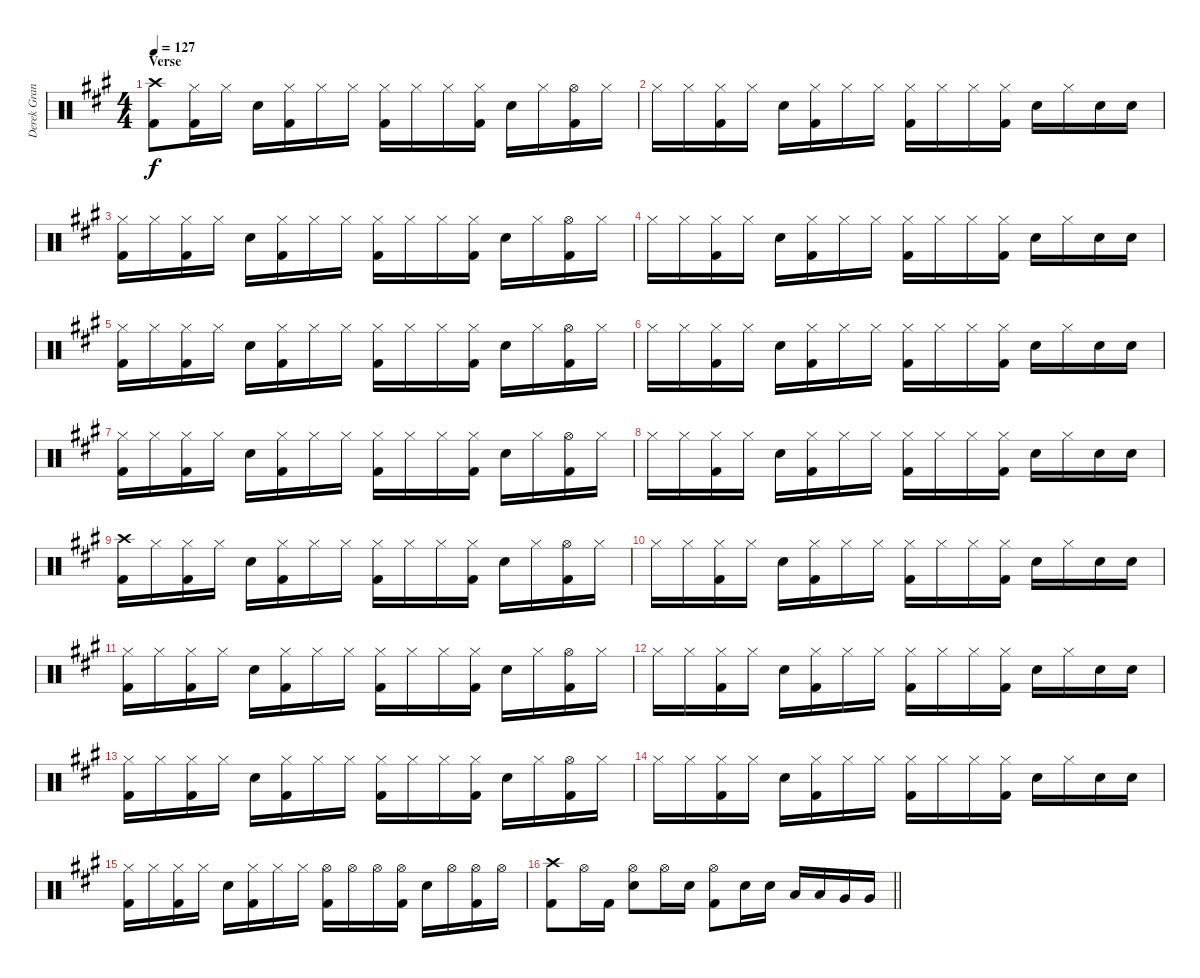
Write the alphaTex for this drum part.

\track ("Derek Grant - Drums" "Derek Gran") {instrument percussion}
\staff {score}
\articulation defaults
\ts (4 4)
\section ("" "Verse")
\tempo 127
\clef neutral
\ks a
("Crash high (hit)" "Kick (hit) 2").8{dy f} ("Kick (hit) 2" "Hi-Hat (closed)").16 "Hi-Hat (closed)".16 "Snare (hit) 2".16 ("Kick (hit) 2" "Hi-Hat (closed)").16 "Hi-Hat (closed)".16 "Hi-Hat (closed)".16 ("Hi-Hat (closed)" "Kick (hit) 2").16 "Hi-Hat (closed)".16 "Hi-Hat (closed)".16 ("Hi-Hat (closed)" "Kick (hit) 2").16 "Snare (hit) 2".16 "Hi-Hat (closed)".16 ("Hi-Hat (open)" "Kick (hit) 2").16 "Hi-Hat (closed)".16 |
"Hi-Hat (closed)".16 "Hi-Hat (closed)".16 ("Hi-Hat (closed)" "Kick (hit) 2").16 "Hi-Hat (closed)".16 "Snare (hit) 2".16 ("Kick (hit) 2" "Hi-Hat (closed)").16 "Hi-Hat (closed)".16 "Hi-Hat (closed)".16 ("Hi-Hat (closed)" "Kick (hit) 2").16 "Hi-Hat (closed)".16 "Hi-Hat (closed)".16 ("Hi-Hat (closed)" "Kick (hit) 2").16 "Snare (hit) 2".16 "Hi-Hat (closed)".16 "Electric Snare (hit)".16 "Electric Snare (hit)".16 |
("Hi-Hat (closed)" "Kick (hit) 2").16 "Hi-Hat (closed)".16 ("Hi-Hat (closed)" "Kick (hit) 2").16 "Hi-Hat (closed)".16 "Snare (hit) 2".16 ("Kick (hit) 2" "Hi-Hat (closed)").16 "Hi-Hat (closed)".16 "Hi-Hat (closed)".16 ("Hi-Hat (closed)" "Kick (hit) 2").16 "Hi-Hat (closed)".16 "Hi-Hat (closed)".16 ("Hi-Hat (closed)" "Kick (hit) 2").16 "Snare (hit) 2".16 "Hi-Hat (closed)".16 ("Hi-Hat (open)" "Kick (hit) 2").16 "Hi-Hat (closed)".16 |
"Hi-Hat (closed)".16 "Hi-Hat (closed)".16 ("Hi-Hat (closed)" "Kick (hit) 2").16 "Hi-Hat (closed)".16 "Snare (hit) 2".16 ("Kick (hit) 2" "Hi-Hat (closed)").16 "Hi-Hat (closed)".16 "Hi-Hat (closed)".16 ("Hi-Hat (closed)" "Kick (hit) 2").16 "Hi-Hat (closed)".16 "Hi-Hat (closed)".16 ("Hi-Hat (closed)" "Kick (hit) 2").16 "Snare (hit) 2".16 "Hi-Hat (closed)".16 "Electric Snare (hit)".16 "Electric Snare (hit)".16 |
("Hi-Hat (closed)" "Kick (hit) 2").16 "Hi-Hat (closed)".16 ("Hi-Hat (closed)" "Kick (hit) 2").16 "Hi-Hat (closed)".16 "Snare (hit) 2".16 ("Kick (hit) 2" "Hi-Hat (closed)").16 "Hi-Hat (closed)".16 "Hi-Hat (closed)".16 ("Hi-Hat (closed)" "Kick (hit) 2").16 "Hi-Hat (closed)".16 "Hi-Hat (closed)".16 ("Hi-Hat (closed)" "Kick (hit) 2").16 "Snare (hit) 2".16 "Hi-Hat (closed)".16 ("Hi-Hat (open)" "Kick (hit) 2").16 "Hi-Hat (closed)".16 |
"Hi-Hat (closed)".16 "Hi-Hat (closed)".16 ("Hi-Hat (closed)" "Kick (hit) 2").16 "Hi-Hat (closed)".16 "Snare (hit) 2".16 ("Kick (hit) 2" "Hi-Hat (closed)").16 "Hi-Hat (closed)".16 "Hi-Hat (closed)".16 ("Hi-Hat (closed)" "Kick (hit) 2").16 "Hi-Hat (closed)".16 "Hi-Hat (closed)".16 ("Hi-Hat (closed)" "Kick (hit) 2").16 "Snare (hit) 2".16 "Hi-Hat (closed)".16 "Electric Snare (hit)".16 "Electric Snare (hit)".16 |
("Hi-Hat (closed)" "Kick (hit) 2").16 "Hi-Hat (closed)".16 ("Hi-Hat (closed)" "Kick (hit) 2").16 "Hi-Hat (closed)".16 "Snare (hit) 2".16 ("Kick (hit) 2" "Hi-Hat (closed)").16 "Hi-Hat (closed)".16 "Hi-Hat (closed)".16 ("Hi-Hat (closed)" "Kick (hit) 2").16 "Hi-Hat (closed)".16 "Hi-Hat (closed)".16 ("Hi-Hat (closed)" "Kick (hit) 2").16 "Snare (hit) 2".16 "Hi-Hat (closed)".16 ("Hi-Hat (open)" "Kick (hit) 2").16 "Hi-Hat (closed)".16 |
"Hi-Hat (closed)".16 "Hi-Hat (closed)".16 ("Hi-Hat (closed)" "Kick (hit) 2").16 "Hi-Hat (closed)".16 "Snare (hit) 2".16 ("Kick (hit) 2" "Hi-Hat (closed)").16 "Hi-Hat (closed)".16 "Hi-Hat (closed)".16 ("Hi-Hat (closed)" "Kick (hit) 2").16 "Hi-Hat (closed)".16 "Hi-Hat (closed)".16 ("Hi-Hat (closed)" "Kick (hit) 2").16 "Snare (hit) 2".16 "Hi-Hat (closed)".16 "Electric Snare (hit)".16 "Electric Snare (hit)".16 |
("Crash high (hit)" "Kick (hit) 2").16 "Hi-Hat (closed)".16 ("Hi-Hat (closed)" "Kick (hit) 2").16 "Hi-Hat (closed)".16 "Snare (hit) 2".16 ("Kick (hit) 2" "Hi-Hat (closed)").16 "Hi-Hat (closed)".16 "Hi-Hat (closed)".16 ("Hi-Hat (closed)" "Kick (hit) 2").16 "Hi-Hat (closed)".16 "Hi-Hat (closed)".16 ("Hi-Hat (closed)" "Kick (hit) 2").16 "Snare (hit) 2".16 "Hi-Hat (closed)".16 ("Hi-Hat (open)" "Kick (hit) 2").16 "Hi-Hat (closed)".16 |
"Hi-Hat (closed)".16 "Hi-Hat (closed)".16 ("Hi-Hat (closed)" "Kick (hit) 2").16 "Hi-Hat (closed)".16 "Snare (hit) 2".16 ("Kick (hit) 2" "Hi-Hat (closed)").16 "Hi-Hat (closed)".16 "Hi-Hat (closed)".16 ("Hi-Hat (closed)" "Kick (hit) 2").16 "Hi-Hat (closed)".16 "Hi-Hat (closed)".16 ("Hi-Hat (closed)" "Kick (hit) 2").16 "Snare (hit) 2".16 "Hi-Hat (closed)".16 "Electric Snare (hit)".16 "Electric Snare (hit)".16 |
("Hi-Hat (closed)" "Kick (hit) 2").16 "Hi-Hat (closed)".16 ("Hi-Hat (closed)" "Kick (hit) 2").16 "Hi-Hat (closed)".16 "Snare (hit) 2".16 ("Kick (hit) 2" "Hi-Hat (closed)").16 "Hi-Hat (closed)".16 "Hi-Hat (closed)".16 ("Hi-Hat (closed)" "Kick (hit) 2").16 "Hi-Hat (closed)".16 "Hi-Hat (closed)".16 ("Hi-Hat (closed)" "Kick (hit) 2").16 "Snare (hit) 2".16 "Hi-Hat (closed)".16 ("Hi-Hat (open)" "Kick (hit) 2").16 "Hi-Hat (closed)".16 |
"Hi-Hat (closed)".16 "Hi-Hat (closed)".16 ("Hi-Hat (closed)" "Kick (hit) 2").16 "Hi-Hat (closed)".16 "Snare (hit) 2".16 ("Kick (hit) 2" "Hi-Hat (closed)").16 "Hi-Hat (closed)".16 "Hi-Hat (closed)".16 ("Hi-Hat (closed)" "Kick (hit) 2").16 "Hi-Hat (closed)".16 "Hi-Hat (closed)".16 ("Hi-Hat (closed)" "Kick (hit) 2").16 "Snare (hit) 2".16 "Hi-Hat (closed)".16 "Electric Snare (hit)".16 "Electric Snare (hit)".16 |
("Hi-Hat (closed)" "Kick (hit) 2").16 "Hi-Hat (closed)".16 ("Hi-Hat (closed)" "Kick (hit) 2").16 "Hi-Hat (closed)".16 "Snare (hit) 2".16 ("Kick (hit) 2" "Hi-Hat (closed)").16 "Hi-Hat (closed)".16 "Hi-Hat (closed)".16 ("Hi-Hat (closed)" "Kick (hit) 2").16 "Hi-Hat (closed)".16 "Hi-Hat (closed)".16 ("Hi-Hat (closed)" "Kick (hit) 2").16 "Snare (hit) 2".16 "Hi-Hat (closed)".16 ("Hi-Hat (open)" "Kick (hit) 2").16 "Hi-Hat (closed)".16 |
"Hi-Hat (closed)".16 "Hi-Hat (closed)".16 ("Hi-Hat (closed)" "Kick (hit) 2").16 "Hi-Hat (closed)".16 "Snare (hit) 2".16 ("Kick (hit) 2" "Hi-Hat (closed)").16 "Hi-Hat (closed)".16 "Hi-Hat (closed)".16 ("Hi-Hat (closed)" "Kick (hit) 2").16 "Hi-Hat (closed)".16 "Hi-Hat (closed)".16 ("Hi-Hat (closed)" "Kick (hit) 2").16 "Snare (hit) 2".16 "Hi-Hat (closed)".16 "Electric Snare (hit)".16 "Electric Snare (hit)".16 |
("Hi-Hat (closed)" "Kick (hit) 2").16 "Hi-Hat (closed)".16 ("Hi-Hat (closed)" "Kick (hit) 2").16 "Hi-Hat (closed)".16 "Snare (hit) 2".16 ("Kick (hit) 2" "Hi-Hat (closed)").16 "Hi-Hat (closed)".16 "Hi-Hat (closed)".16 ("Hi-Hat (open)" "Kick (hit) 2").16 "Hi-Hat (open)".16 "Hi-Hat (open)".16 ("Hi-Hat (open)" "Kick (hit) 2").16 "Snare (hit) 2".16 "Hi-Hat (open)".16 ("Hi-Hat (open)" "Kick (hit) 2").16 "Hi-Hat (open)".16 |
\barLineRight lightlight
("Crash high (hit)" "Kick (hit) 2").8 "Hi-Hat (open)".16 "Kick (hit) 2".16 ("Snare (hit) 2" "Hi-Hat (open)").8 "Hi-Hat (open)".16 "Snare (hit) 2".16 ("Kick (hit) 2" "Hi-Hat (open)").8 "Snare (hit) 2".16 "Snare (hit) 2".16 "Low Tom (hit)".16 "Low Tom (hit)".16 "Very Low Tom (hit)".16 "Very Low Tom (hit)".16
